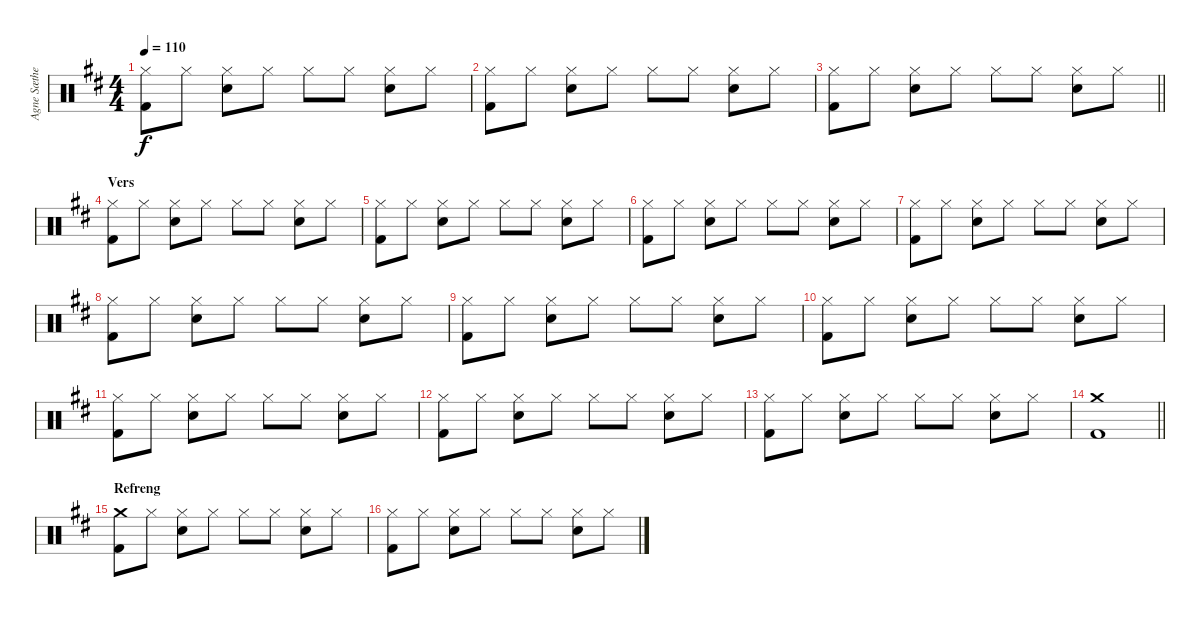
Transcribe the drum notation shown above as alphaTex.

\track ("Agne Sæther - Trommer" "Agne Sæthe") {instrument percussion}
\staff {score}
\articulation defaults
\ts (4 4)
\tempo 110
\clef neutral
\ks d
("Hi-Hat (closed)" "Kick (hit) 2").8{dy f} "Hi-Hat (closed)".8 ("Hi-Hat (closed)" "Electric Snare (hit)").8 "Hi-Hat (closed)".8 "Hi-Hat (closed)".8 "Hi-Hat (closed)".8 ("Hi-Hat (closed)" "Electric Snare (hit)").8 "Hi-Hat (closed)".8 |
("Hi-Hat (closed)" "Kick (hit) 2").8 "Hi-Hat (closed)".8 ("Hi-Hat (closed)" "Electric Snare (hit)").8 "Hi-Hat (closed)".8 "Hi-Hat (closed)".8 "Hi-Hat (closed)".8 ("Hi-Hat (closed)" "Electric Snare (hit)").8 "Hi-Hat (closed)".8 |
\barLineRight lightlight
("Hi-Hat (closed)" "Kick (hit) 2").8 "Hi-Hat (closed)".8 ("Hi-Hat (closed)" "Electric Snare (hit)").8 "Hi-Hat (closed)".8 "Hi-Hat (closed)".8 "Hi-Hat (closed)".8 ("Hi-Hat (closed)" "Electric Snare (hit)").8 "Hi-Hat (closed)".8 |
\section ("" "Vers")
("Hi-Hat (closed)" "Kick (hit) 2").8 "Hi-Hat (closed)".8 ("Hi-Hat (closed)" "Electric Snare (hit)").8 "Hi-Hat (closed)".8 "Hi-Hat (closed)".8 "Hi-Hat (closed)".8 ("Hi-Hat (closed)" "Electric Snare (hit)").8 "Hi-Hat (closed)".8 |
("Hi-Hat (closed)" "Kick (hit) 2").8 "Hi-Hat (closed)".8 ("Hi-Hat (closed)" "Electric Snare (hit)").8 "Hi-Hat (closed)".8 "Hi-Hat (closed)".8 "Hi-Hat (closed)".8 ("Hi-Hat (closed)" "Electric Snare (hit)").8 "Hi-Hat (closed)".8 |
("Hi-Hat (closed)" "Kick (hit) 2").8 "Hi-Hat (closed)".8 ("Hi-Hat (closed)" "Electric Snare (hit)").8 "Hi-Hat (closed)".8 "Hi-Hat (closed)".8 "Hi-Hat (closed)".8 ("Hi-Hat (closed)" "Electric Snare (hit)").8 "Hi-Hat (closed)".8 |
("Hi-Hat (closed)" "Kick (hit) 2").8 "Hi-Hat (closed)".8 ("Hi-Hat (closed)" "Electric Snare (hit)").8 "Hi-Hat (closed)".8 "Hi-Hat (closed)".8 "Hi-Hat (closed)".8 ("Hi-Hat (closed)" "Electric Snare (hit)").8 "Hi-Hat (closed)".8 |
("Hi-Hat (closed)" "Kick (hit) 2").8 "Hi-Hat (closed)".8 ("Hi-Hat (closed)" "Electric Snare (hit)").8 "Hi-Hat (closed)".8 "Hi-Hat (closed)".8 "Hi-Hat (closed)".8 ("Hi-Hat (closed)" "Electric Snare (hit)").8 "Hi-Hat (closed)".8 |
("Hi-Hat (closed)" "Kick (hit) 2").8 "Hi-Hat (closed)".8 ("Hi-Hat (closed)" "Electric Snare (hit)").8 "Hi-Hat (closed)".8 "Hi-Hat (closed)".8 "Hi-Hat (closed)".8 ("Hi-Hat (closed)" "Electric Snare (hit)").8 "Hi-Hat (closed)".8 |
("Hi-Hat (closed)" "Kick (hit) 2").8 "Hi-Hat (closed)".8 ("Hi-Hat (closed)" "Electric Snare (hit)").8 "Hi-Hat (closed)".8 "Hi-Hat (closed)".8 "Hi-Hat (closed)".8 ("Hi-Hat (closed)" "Electric Snare (hit)").8 "Hi-Hat (closed)".8 |
("Hi-Hat (closed)" "Kick (hit) 2").8 "Hi-Hat (closed)".8 ("Hi-Hat (closed)" "Electric Snare (hit)").8 "Hi-Hat (closed)".8 "Hi-Hat (closed)".8 "Hi-Hat (closed)".8 ("Hi-Hat (closed)" "Electric Snare (hit)").8 "Hi-Hat (closed)".8 |
("Hi-Hat (closed)" "Kick (hit) 2").8 "Hi-Hat (closed)".8 ("Hi-Hat (closed)" "Electric Snare (hit)").8 "Hi-Hat (closed)".8 "Hi-Hat (closed)".8 "Hi-Hat (closed)".8 ("Hi-Hat (closed)" "Electric Snare (hit)").8 "Hi-Hat (closed)".8 |
("Hi-Hat (closed)" "Kick (hit) 2").8 "Hi-Hat (closed)".8 ("Hi-Hat (closed)" "Electric Snare (hit)").8 "Hi-Hat (closed)".8 "Hi-Hat (closed)".8 "Hi-Hat (closed)".8 ("Hi-Hat (closed)" "Electric Snare (hit)").8 "Hi-Hat (closed)".8 |
\barLineRight lightlight
("Crash medium (hit)" "Kick (hit) 2").1 |
\section ("" "Refreng")
("Crash medium (hit)" "Kick (hit) 2").8 "Hi-Hat (closed)".8 ("Hi-Hat (closed)" "Electric Snare (hit)").8 "Hi-Hat (closed)".8 "Hi-Hat (closed)".8 "Hi-Hat (closed)".8 ("Hi-Hat (closed)" "Electric Snare (hit)").8 "Hi-Hat (closed)".8 |
("Hi-Hat (closed)" "Kick (hit) 2").8 "Hi-Hat (closed)".8 ("Hi-Hat (closed)" "Electric Snare (hit)").8 "Hi-Hat (closed)".8 "Hi-Hat (closed)".8 "Hi-Hat (closed)".8 ("Hi-Hat (closed)" "Electric Snare (hit)").8 "Hi-Hat (closed)".8
